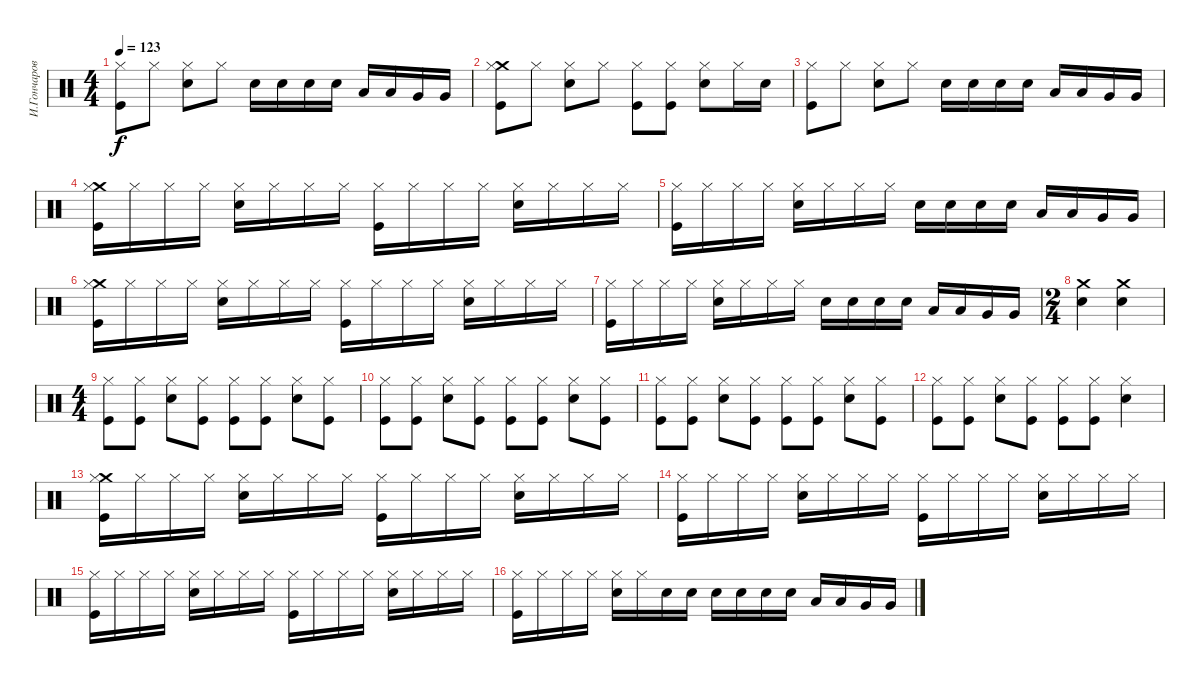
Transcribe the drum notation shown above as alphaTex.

\track ("И.Гончаров" "И.Гончаров") {instrument percussion}
\staff {score}
\articulation defaults
\ts (4 4)
\tempo 123
\clef neutral
\ks c
("Hi-Hat (closed)" "Kick (hit)").8{dy f} "Hi-Hat (closed)".8 ("Hi-Hat (closed)" "Snare (hit) 2").8 "Hi-Hat (closed)".8 "Snare (hit) 2".16 "Snare (hit) 2".16 "Snare (hit) 2".16 "Snare (hit) 2".16 "Low Tom (hit)".16 "Low Tom (hit)".16 "Very Low Tom (hit)".16 "Very Low Tom (hit)".16 |
("Crash medium (hit)" "Hi-Hat (closed)" "Kick (hit)").8 "Hi-Hat (closed)".8 ("Hi-Hat (closed)" "Snare (hit) 2").8 "Hi-Hat (closed)".8 ("Hi-Hat (closed)" "Kick (hit)").8 ("Hi-Hat (closed)" "Kick (hit)").8 ("Hi-Hat (closed)" "Snare (hit) 2").8 "Hi-Hat (closed)".16 "Snare (hit) 2".16 |
("Hi-Hat (closed)" "Kick (hit)").8 "Hi-Hat (closed)".8 ("Hi-Hat (closed)" "Snare (hit) 2").8 "Hi-Hat (closed)".8 "Snare (hit) 2".16 "Snare (hit) 2".16 "Snare (hit) 2".16 "Snare (hit) 2".16 "Low Tom (hit)".16 "Low Tom (hit)".16 "Very Low Tom (hit)".16 "Very Low Tom (hit)".16 |
("Crash medium (hit)" "Hi-Hat (closed)" "Kick (hit)").16 "Hi-Hat (closed)".16 "Hi-Hat (closed)".16 "Hi-Hat (closed)".16 ("Hi-Hat (closed)" "Snare (hit) 2").16 "Hi-Hat (closed)".16 "Hi-Hat (closed)".16 "Hi-Hat (closed)".16 ("Hi-Hat (closed)" "Kick (hit)").16 "Hi-Hat (closed)".16 "Hi-Hat (closed)".16 "Hi-Hat (closed)".16 ("Hi-Hat (closed)" "Snare (hit) 2").16 "Hi-Hat (closed)".16 "Hi-Hat (closed)".16 "Hi-Hat (closed)".16 |
("Hi-Hat (closed)" "Kick (hit)").16 "Hi-Hat (closed)".16 "Hi-Hat (closed)".16 "Hi-Hat (closed)".16 ("Hi-Hat (closed)" "Snare (hit) 2").16 "Hi-Hat (closed)".16 "Hi-Hat (closed)".16 "Hi-Hat (closed)".16 "Snare (hit) 2".16 "Snare (hit) 2".16 "Snare (hit) 2".16 "Snare (hit) 2".16 "Low Tom (hit)".16 "Low Tom (hit)".16 "Very Low Tom (hit)".16 "Very Low Tom (hit)".16 |
("Crash medium (hit)" "Hi-Hat (closed)" "Kick (hit)").16 "Hi-Hat (closed)".16 "Hi-Hat (closed)".16 "Hi-Hat (closed)".16 ("Hi-Hat (closed)" "Snare (hit) 2").16 "Hi-Hat (closed)".16 "Hi-Hat (closed)".16 "Hi-Hat (closed)".16 ("Hi-Hat (closed)" "Kick (hit)").16 "Hi-Hat (closed)".16 "Hi-Hat (closed)".16 "Hi-Hat (closed)".16 ("Hi-Hat (closed)" "Snare (hit) 2").16 "Hi-Hat (closed)".16 "Hi-Hat (closed)".16 "Hi-Hat (closed)".16 |
("Hi-Hat (closed)" "Kick (hit)").16 "Hi-Hat (closed)".16 "Hi-Hat (closed)".16 "Hi-Hat (closed)".16 ("Hi-Hat (closed)" "Snare (hit) 2").16 "Hi-Hat (closed)".16 "Hi-Hat (closed)".16 "Hi-Hat (closed)".16 "Snare (hit) 2".16 "Snare (hit) 2".16 "Snare (hit) 2".16 "Snare (hit) 2".16 "Low Tom (hit)".16 "Low Tom (hit)".16 "Very Low Tom (hit)".16 "Very Low Tom (hit)".16 |
\ts (2 4)
("Crash medium (hit)" "Snare (hit) 2").4 ("Crash medium (hit)" "Snare (hit) 2").4 |
\ts (4 4)
("Hi-Hat (closed)" "Kick (hit)").8 ("Hi-Hat (closed)" "Kick (hit)").8 ("Hi-Hat (closed)" "Snare (hit) 2").8 ("Hi-Hat (closed)" "Kick (hit)").8 ("Hi-Hat (closed)" "Kick (hit)").8 ("Hi-Hat (closed)" "Kick (hit)").8 ("Hi-Hat (closed)" "Snare (hit) 2").8 ("Hi-Hat (closed)" "Kick (hit)").8 |
("Hi-Hat (closed)" "Kick (hit)").8 ("Hi-Hat (closed)" "Kick (hit)").8 ("Hi-Hat (closed)" "Snare (hit) 2").8 ("Hi-Hat (closed)" "Kick (hit)").8 ("Hi-Hat (closed)" "Kick (hit)").8 ("Hi-Hat (closed)" "Kick (hit)").8 ("Hi-Hat (closed)" "Snare (hit) 2").8 ("Hi-Hat (closed)" "Kick (hit)").8 |
("Hi-Hat (closed)" "Kick (hit)").8 ("Hi-Hat (closed)" "Kick (hit)").8 ("Hi-Hat (closed)" "Snare (hit) 2").8 ("Hi-Hat (closed)" "Kick (hit)").8 ("Hi-Hat (closed)" "Kick (hit)").8 ("Hi-Hat (closed)" "Kick (hit)").8 ("Hi-Hat (closed)" "Snare (hit) 2").8 ("Hi-Hat (closed)" "Kick (hit)").8 |
("Hi-Hat (closed)" "Kick (hit)").8 ("Hi-Hat (closed)" "Kick (hit)").8 ("Hi-Hat (closed)" "Snare (hit) 2").8 ("Hi-Hat (closed)" "Kick (hit)").8 ("Hi-Hat (closed)" "Kick (hit)").8 ("Hi-Hat (closed)" "Kick (hit)").8 ("Hi-Hat (closed)" "Snare (hit) 2").4 |
("Crash medium (hit)" "Hi-Hat (closed)" "Kick (hit)").16 "Hi-Hat (closed)".16 "Hi-Hat (closed)".16 "Hi-Hat (closed)".16 ("Hi-Hat (closed)" "Snare (hit) 2").16 "Hi-Hat (closed)".16 "Hi-Hat (closed)".16 "Hi-Hat (closed)".16 ("Hi-Hat (closed)" "Kick (hit)").16 "Hi-Hat (closed)".16 "Hi-Hat (closed)".16 "Hi-Hat (closed)".16 ("Hi-Hat (closed)" "Snare (hit) 2").16 "Hi-Hat (closed)".16 "Hi-Hat (closed)".16 "Hi-Hat (closed)".16 |
("Hi-Hat (closed)" "Kick (hit)").16 "Hi-Hat (closed)".16 "Hi-Hat (closed)".16 "Hi-Hat (closed)".16 ("Hi-Hat (closed)" "Snare (hit) 2").16 "Hi-Hat (closed)".16 "Hi-Hat (closed)".16 "Hi-Hat (closed)".16 ("Hi-Hat (closed)" "Kick (hit)").16 "Hi-Hat (closed)".16 "Hi-Hat (closed)".16 "Hi-Hat (closed)".16 ("Hi-Hat (closed)" "Snare (hit) 2").16 "Hi-Hat (closed)".16 "Hi-Hat (closed)".16 "Hi-Hat (closed)".16 |
("Hi-Hat (closed)" "Kick (hit)").16 "Hi-Hat (closed)".16 "Hi-Hat (closed)".16 "Hi-Hat (closed)".16 ("Hi-Hat (closed)" "Snare (hit) 2").16 "Hi-Hat (closed)".16 "Hi-Hat (closed)".16 "Hi-Hat (closed)".16 ("Hi-Hat (closed)" "Kick (hit)").16 "Hi-Hat (closed)".16 "Hi-Hat (closed)".16 "Hi-Hat (closed)".16 ("Hi-Hat (closed)" "Snare (hit) 2").16 "Hi-Hat (closed)".16 "Hi-Hat (closed)".16 "Hi-Hat (closed)".16 |
("Hi-Hat (closed)" "Kick (hit)").16 "Hi-Hat (closed)".16 "Hi-Hat (closed)".16 "Hi-Hat (closed)".16 ("Hi-Hat (closed)" "Snare (hit) 2").16 "Hi-Hat (closed)".16 "Snare (hit) 2".16 "Snare (hit) 2".16 "Snare (hit) 2".16 "Snare (hit) 2".16 "Snare (hit) 2".16 "Snare (hit) 2".16 "Low Tom (hit)".16 "Low Tom (hit)".16 "Very Low Tom (hit)".16 "Very Low Tom (hit)".16
